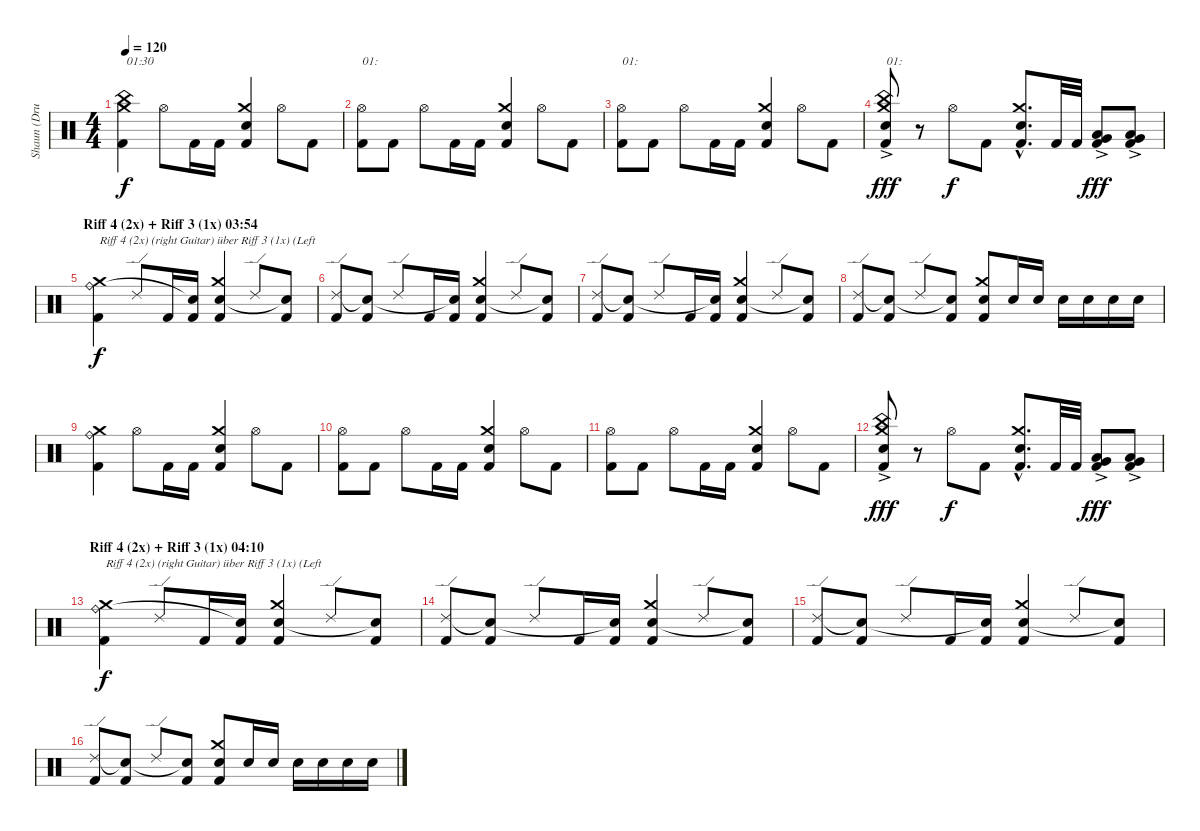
\track ("Shaun (Drums Of DOOM)" "Shaun (Dru") {instrument percussion}
\staff {score}
\articulation defaults
\ts (4 4)
\tempo 120
\clef neutral
\ks c
("Kick (hit) 2" "China (hit)" "Crash medium (hit)").4{txt "01:30" dy f} "Hi-Hat (open)".8 "Kick (hit) 2".16 "Kick (hit) 2".16 ("Kick (hit) 2" "Electric Snare (hit)" "Crash medium (hit)").4 "Hi-Hat (open)".8 "Kick (hit) 2".8 |
("Kick (hit) 2" "Hi-Hat (open)").8{txt "01:"} "Kick (hit) 2".8 "Hi-Hat (open)".8 "Kick (hit) 2".16 "Kick (hit) 2".16 ("Kick (hit) 2" "Electric Snare (hit)" "Crash medium (hit)").4 "Hi-Hat (open)".8 "Kick (hit) 2".8 |
("Kick (hit) 2" "Hi-Hat (open)").8{txt "01:"} "Kick (hit) 2".8 "Hi-Hat (open)".8 "Kick (hit) 2".16 "Kick (hit) 2".16 ("Kick (hit) 2" "Electric Snare (hit)" "Crash medium (hit)").4 "Hi-Hat (open)".8 "Kick (hit) 2".8 |
("Kick (hit) 2" "Electric Snare (hit)" "China (hit)"{ac} "Crash medium (hit)"{ac}).8{txt "01:" dy fff} r.8 "Hi-Hat (open)".8{dy f} "Kick (hit) 2".8 ("Kick (hit) 2"{hac} "Electric Snare (hit)"{hac} "Crash medium (hit)"{hac}).8{d} "Kick (hit) 2".32 "Kick (hit) 2".32 ("Kick (hit) 2" "Low Floor Tom (hit)"{ac} "Very Low Tom (hit)"{ac}).8{dy fff} ("Kick (hit) 2" "Low Tom (hit)"{ac} "Very Low Tom (hit)"{ac}).8 |
\section ("" "Riff 4 (2x) + Riff 3 (1x) 03:54")
("Kick (hit) 2" "Ride (bell)" "Crash medium (hit)").4{txt "Riff 4 (2x) (right Guitar) über Riff 3 (1x) (Left " dy f} "Ride (edge) 2".8 "Kick (hit) 2".16 ("Kick (hit) 2" "Snare (hit)"{t}).16 ("Kick (hit) 2" "Electric Snare (hit)" "Crash medium (hit)").4 "Ride (edge) 2".8 ("Kick (hit) 2" "Snare (hit)"{t}).8 |
("Kick (hit) 2" "Ride (edge) 2").8 ("Kick (hit) 2" "Snare (hit)"{t}).8 "Ride (edge) 2".8 "Kick (hit) 2".16 ("Kick (hit) 2" "Snare (hit)"{t}).16 ("Kick (hit) 2" "Electric Snare (hit)" "Crash medium (hit)").4 "Ride (edge) 2".8 ("Kick (hit) 2" "Snare (hit)"{t}).8 |
("Kick (hit) 2" "Ride (edge) 2").8 ("Kick (hit) 2" "Snare (hit)"{t}).8 "Ride (edge) 2".8 "Kick (hit) 2".16 ("Kick (hit) 2" "Snare (hit)"{t}).16 ("Kick (hit) 2" "Electric Snare (hit)" "Crash medium (hit)").4 "Ride (edge) 2".8 ("Kick (hit) 2" "Snare (hit)"{t}).8 |
("Kick (hit) 2" "Ride (edge) 2").8 ("Kick (hit) 2" "Snare (hit)"{t}).8 "Ride (edge) 2".8 ("Kick (hit) 2" "Snare (hit)"{t}).8 ("Kick (hit) 2" "Electric Snare (hit)" "Crash medium (hit)").8 "Electric Snare (hit)".16 "Electric Snare (hit)".16 "Electric Snare (hit)".16 "Electric Snare (hit)".16 "Electric Snare (hit)".16 "Electric Snare (hit)".16 |
("Kick (hit) 2" "Ride (bell)" "Crash medium (hit)").4 "Hi-Hat (open)".8 "Kick (hit) 2".16 "Kick (hit) 2".16 ("Kick (hit) 2" "Electric Snare (hit)" "Crash medium (hit)").4 "Hi-Hat (open)".8 "Kick (hit) 2".8 |
("Kick (hit) 2" "Hi-Hat (open)").8 "Kick (hit) 2".8 "Hi-Hat (open)".8 "Kick (hit) 2".16 "Kick (hit) 2".16 ("Kick (hit) 2" "Electric Snare (hit)" "Crash medium (hit)").4 "Hi-Hat (open)".8 "Kick (hit) 2".8 |
("Kick (hit) 2" "Hi-Hat (open)").8 "Kick (hit) 2".8 "Hi-Hat (open)".8 "Kick (hit) 2".16 "Kick (hit) 2".16 ("Kick (hit) 2" "Electric Snare (hit)" "Crash medium (hit)").4 "Hi-Hat (open)".8 "Kick (hit) 2".8 |
("Kick (hit) 2" "Electric Snare (hit)" "China (hit)"{ac} "Crash medium (hit)"{ac}).8{dy fff} r.8 "Hi-Hat (open)".8{dy f} "Kick (hit) 2".8 ("Kick (hit) 2"{hac} "Electric Snare (hit)"{hac} "Crash medium (hit)"{hac}).8{d} "Kick (hit) 2".32 "Kick (hit) 2".32 ("Kick (hit) 2" "Low Floor Tom (hit)"{ac} "Very Low Tom (hit)"{ac}).8{dy fff} ("Kick (hit) 2" "Low Tom (hit)"{ac} "Very Low Tom (hit)"{ac}).8 |
\section ("" "Riff 4 (2x) + Riff 3 (1x) 04:10")
("Kick (hit) 2" "Ride (bell)" "Crash medium (hit)").4{txt "Riff 4 (2x) (right Guitar) über Riff 3 (1x) (Left " dy f} "Ride (edge) 2".8 "Kick (hit) 2".16 ("Kick (hit) 2" "Snare (hit)"{t}).16 ("Kick (hit) 2" "Electric Snare (hit)" "Crash medium (hit)").4 "Ride (edge) 2".8 ("Kick (hit) 2" "Snare (hit)"{t}).8 |
("Kick (hit) 2" "Ride (edge) 2").8 ("Kick (hit) 2" "Snare (hit)"{t}).8 "Ride (edge) 2".8 "Kick (hit) 2".16 ("Kick (hit) 2" "Snare (hit)"{t}).16 ("Kick (hit) 2" "Electric Snare (hit)" "Crash medium (hit)").4 "Ride (edge) 2".8 ("Kick (hit) 2" "Snare (hit)"{t}).8 |
("Kick (hit) 2" "Ride (edge) 2").8 ("Kick (hit) 2" "Snare (hit)"{t}).8 "Ride (edge) 2".8 "Kick (hit) 2".16 ("Kick (hit) 2" "Snare (hit)"{t}).16 ("Kick (hit) 2" "Electric Snare (hit)" "Crash medium (hit)").4 "Ride (edge) 2".8 ("Kick (hit) 2" "Snare (hit)"{t}).8 |
("Kick (hit) 2" "Ride (edge) 2").8 ("Kick (hit) 2" "Snare (hit)"{t}).8 "Ride (edge) 2".8 ("Kick (hit) 2" "Snare (hit)"{t}).8 ("Kick (hit) 2" "Electric Snare (hit)" "Crash medium (hit)").8 "Electric Snare (hit)".16 "Electric Snare (hit)".16 "Electric Snare (hit)".16 "Electric Snare (hit)".16 "Electric Snare (hit)".16 "Electric Snare (hit)".16
